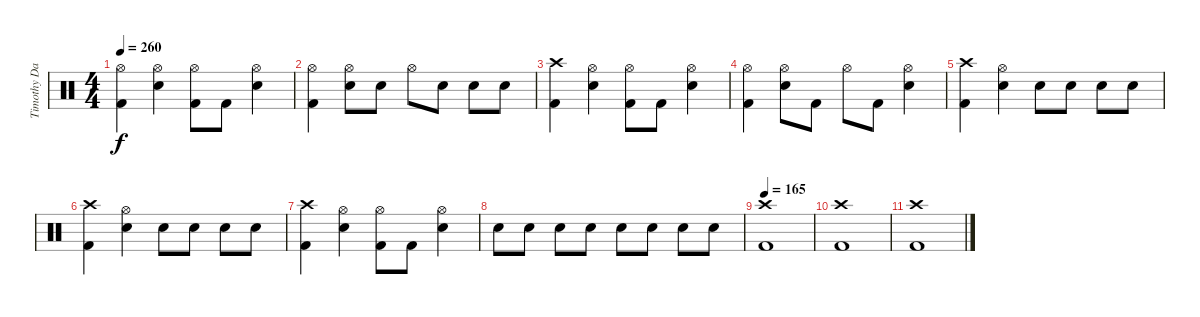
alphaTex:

\track ("Timothy David Bollinger" "Timothy Da") {instrument percussion}
\staff {score}
\articulation defaults
\ts (4 4)
\tempo 260
\clef neutral
\ks c
("Hi-Hat (open)" "Kick (hit) 2").4{dy f} ("Hi-Hat (open)" "Electric Snare (hit)").4 ("Hi-Hat (open)" "Kick (hit) 2").8 "Kick (hit) 2".8 ("Hi-Hat (open)" "Electric Snare (hit)").4 |
("Hi-Hat (open)" "Kick (hit) 2").4 ("Hi-Hat (open)" "Electric Snare (hit)").8 "Electric Snare (hit)".8 "Hi-Hat (open)".8 "Electric Snare (hit)".8 "Electric Snare (hit)".8 "Electric Snare (hit)".8 |
("Crash high (hit)" "Kick (hit) 2").4 ("Hi-Hat (open)" "Electric Snare (hit)").4 ("Hi-Hat (open)" "Kick (hit) 2").8 "Kick (hit) 2".8 ("Hi-Hat (open)" "Electric Snare (hit)").4 |
("Hi-Hat (open)" "Kick (hit) 2").4 ("Hi-Hat (open)" "Electric Snare (hit)").8 "Kick (hit) 2".8 "Hi-Hat (open)".8 "Kick (hit) 2".8 ("Hi-Hat (open)" "Electric Snare (hit)").4 |
("Crash high (hit)" "Kick (hit) 2").4 ("Hi-Hat (open)" "Electric Snare (hit)").4 "Electric Snare (hit)".8 "Electric Snare (hit)".8 "Electric Snare (hit)".8 "Electric Snare (hit)".8 |
("Crash high (hit)" "Kick (hit) 2").4 ("Hi-Hat (open)" "Electric Snare (hit)").4 "Electric Snare (hit)".8 "Electric Snare (hit)".8 "Electric Snare (hit)".8 "Electric Snare (hit)".8 |
("Crash high (hit)" "Kick (hit) 2").4 ("Hi-Hat (open)" "Electric Snare (hit)").4 ("Hi-Hat (open)" "Kick (hit) 2").8 "Kick (hit) 2".8 ("Hi-Hat (open)" "Electric Snare (hit)").4 |
"Electric Snare (hit)".8 "Electric Snare (hit)".8 "Electric Snare (hit)".8 "Electric Snare (hit)".8 "Electric Snare (hit)".8 "Electric Snare (hit)".8 "Electric Snare (hit)".8 "Electric Snare (hit)".8 |
\tempo 165
("Crash high (hit)" "Kick (hit) 2").1 |
("Crash high (hit)" "Kick (hit) 2").1 |
("Crash high (hit)" "Kick (hit) 2").1
